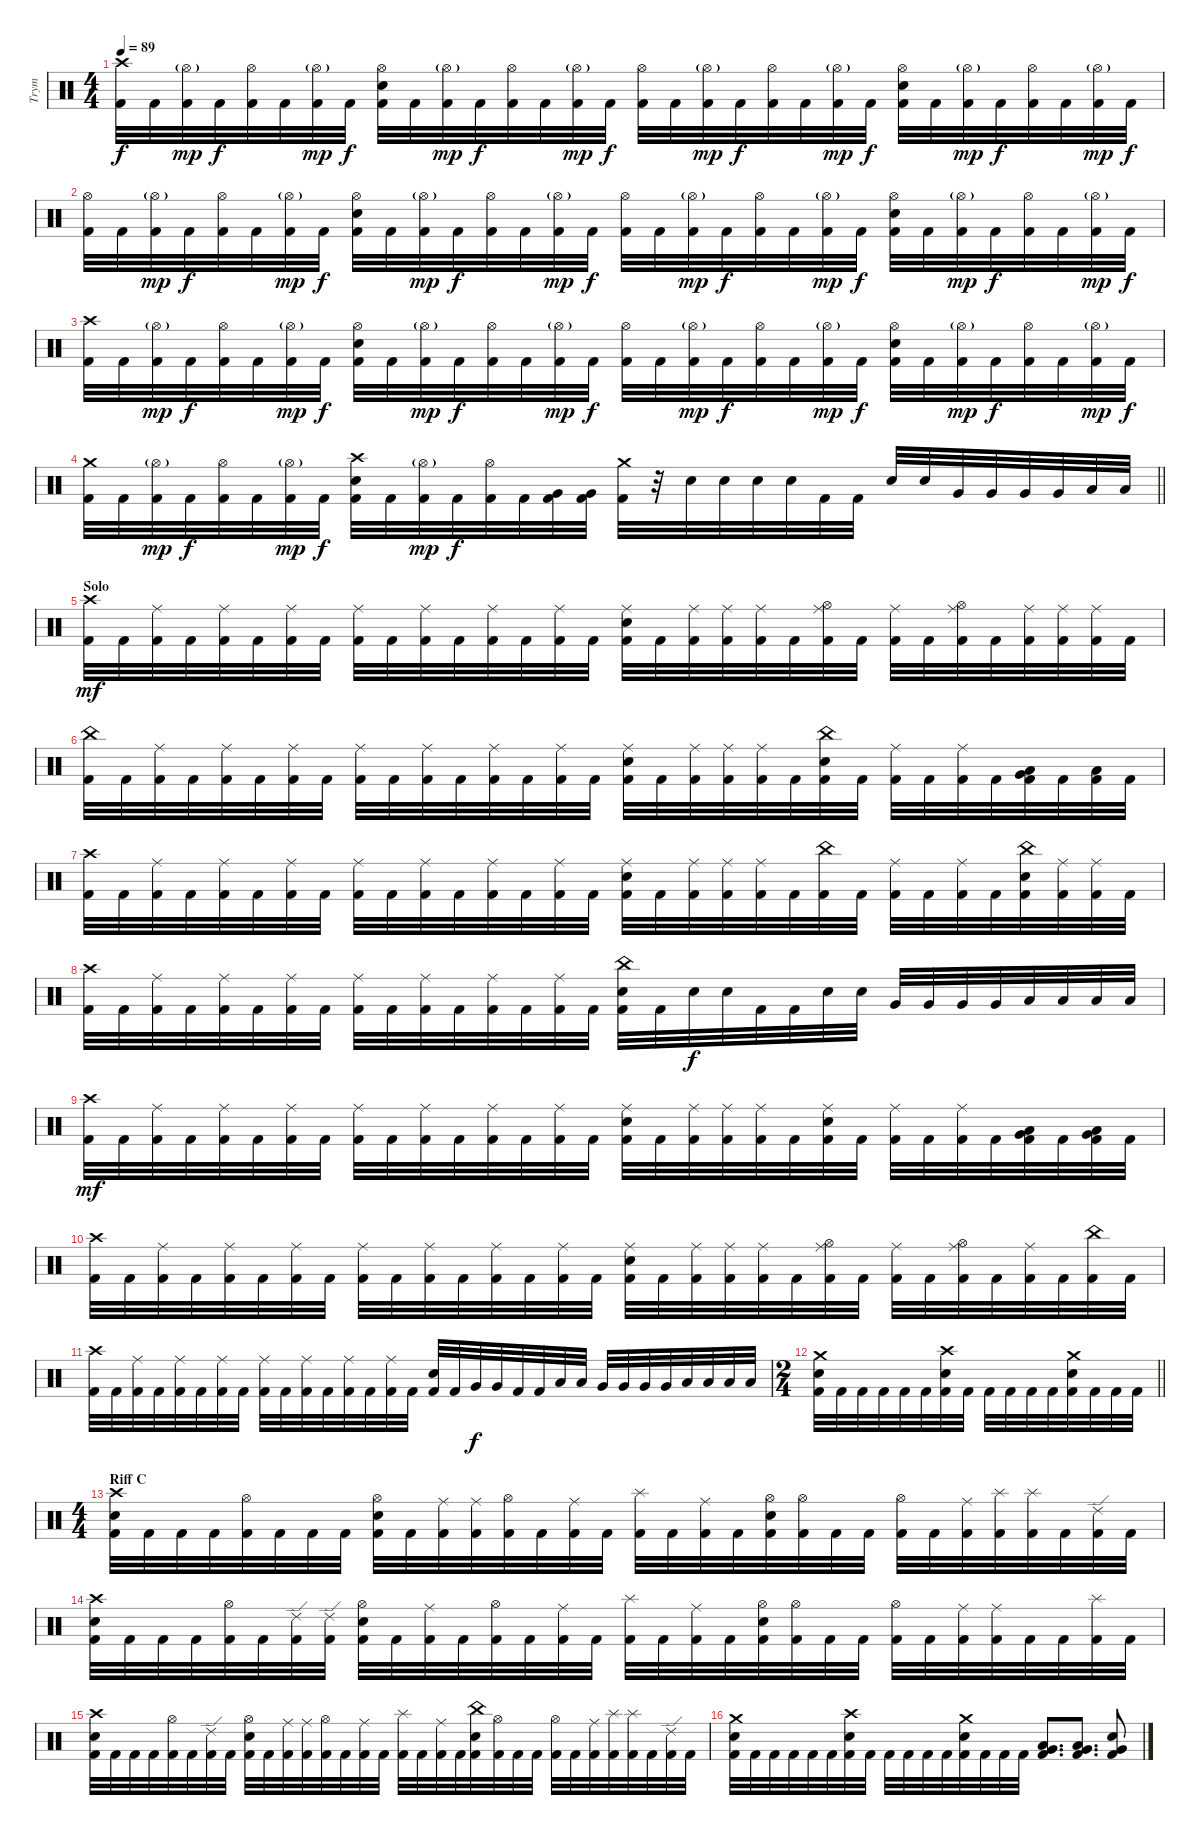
\track ("Trym" "Trym") {instrument percussion}
\staff {score}
\articulation defaults
\ts (4 4)
\tempo 89
\clef neutral
\ks c
("Crash high (hit)" "Kick (hit) 2").32{dy f} "Kick (hit) 2".32 ("Hi-Hat (open)"{g} "Kick (hit) 2").32{dy mp} "Kick (hit) 2".32{dy f} ("Hi-Hat (open)" "Kick (hit) 2").32 "Kick (hit) 2".32 ("Hi-Hat (open)"{g} "Kick (hit) 2").32{dy mp} "Kick (hit) 2".32{dy f} ("Hi-Hat (open)" "Snare (hit) 2" "Kick (hit) 2").32 "Kick (hit) 2".32 ("Hi-Hat (open)"{g} "Kick (hit) 2").32{dy mp} "Kick (hit) 2".32{dy f} ("Hi-Hat (open)" "Kick (hit) 2").32 "Kick (hit) 2".32 ("Hi-Hat (open)"{g} "Kick (hit) 2").32{dy mp} "Kick (hit) 2".32{dy f} ("Hi-Hat (open)" "Kick (hit) 2").32 "Kick (hit) 2".32 ("Hi-Hat (open)"{g} "Kick (hit) 2").32{dy mp} "Kick (hit) 2".32{dy f} ("Hi-Hat (open)" "Kick (hit) 2").32 "Kick (hit) 2".32 ("Hi-Hat (open)"{g} "Kick (hit) 2").32{dy mp} "Kick (hit) 2".32{dy f} ("Hi-Hat (open)" "Snare (hit) 2" "Kick (hit) 2").32 "Kick (hit) 2".32 ("Hi-Hat (open)"{g} "Kick (hit) 2").32{dy mp} "Kick (hit) 2".32{dy f} ("Hi-Hat (open)" "Kick (hit) 2").32 "Kick (hit) 2".32 ("Hi-Hat (open)"{g} "Kick (hit) 2").32{dy mp} "Kick (hit) 2".32{dy f} |
("Hi-Hat (open)" "Kick (hit) 2").32 "Kick (hit) 2".32 ("Hi-Hat (open)"{g} "Kick (hit) 2").32{dy mp} "Kick (hit) 2".32{dy f} ("Hi-Hat (open)" "Kick (hit) 2").32 "Kick (hit) 2".32 ("Hi-Hat (open)"{g} "Kick (hit) 2").32{dy mp} "Kick (hit) 2".32{dy f} ("Hi-Hat (open)" "Snare (hit) 2" "Kick (hit) 2").32 "Kick (hit) 2".32 ("Hi-Hat (open)"{g} "Kick (hit) 2").32{dy mp} "Kick (hit) 2".32{dy f} ("Hi-Hat (open)" "Kick (hit) 2").32 "Kick (hit) 2".32 ("Hi-Hat (open)"{g} "Kick (hit) 2").32{dy mp} "Kick (hit) 2".32{dy f} ("Hi-Hat (open)" "Kick (hit) 2").32 "Kick (hit) 2".32 ("Hi-Hat (open)"{g} "Kick (hit) 2").32{dy mp} "Kick (hit) 2".32{dy f} ("Hi-Hat (open)" "Kick (hit) 2").32 "Kick (hit) 2".32 ("Hi-Hat (open)"{g} "Kick (hit) 2").32{dy mp} "Kick (hit) 2".32{dy f} ("Hi-Hat (open)" "Snare (hit) 2" "Kick (hit) 2").32 "Kick (hit) 2".32 ("Hi-Hat (open)"{g} "Kick (hit) 2").32{dy mp} "Kick (hit) 2".32{dy f} ("Hi-Hat (open)" "Kick (hit) 2").32 "Kick (hit) 2".32 ("Hi-Hat (open)"{g} "Kick (hit) 2").32{dy mp} "Kick (hit) 2".32{dy f} |
("Crash high (hit)" "Kick (hit) 2").32 "Kick (hit) 2".32 ("Hi-Hat (open)"{g} "Kick (hit) 2").32{dy mp} "Kick (hit) 2".32{dy f} ("Hi-Hat (open)" "Kick (hit) 2").32 "Kick (hit) 2".32 ("Hi-Hat (open)"{g} "Kick (hit) 2").32{dy mp} "Kick (hit) 2".32{dy f} ("Hi-Hat (open)" "Snare (hit) 2" "Kick (hit) 2").32 "Kick (hit) 2".32 ("Hi-Hat (open)"{g} "Kick (hit) 2").32{dy mp} "Kick (hit) 2".32{dy f} ("Hi-Hat (open)" "Kick (hit) 2").32 "Kick (hit) 2".32 ("Hi-Hat (open)"{g} "Kick (hit) 2").32{dy mp} "Kick (hit) 2".32{dy f} ("Hi-Hat (open)" "Kick (hit) 2").32 "Kick (hit) 2".32 ("Hi-Hat (open)"{g} "Kick (hit) 2").32{dy mp} "Kick (hit) 2".32{dy f} ("Hi-Hat (open)" "Kick (hit) 2").32 "Kick (hit) 2".32 ("Hi-Hat (open)"{g} "Kick (hit) 2").32{dy mp} "Kick (hit) 2".32{dy f} ("Hi-Hat (open)" "Snare (hit) 2" "Kick (hit) 2").32 "Kick (hit) 2".32 ("Hi-Hat (open)"{g} "Kick (hit) 2").32{dy mp} "Kick (hit) 2".32{dy f} ("Hi-Hat (open)" "Kick (hit) 2").32 "Kick (hit) 2".32 ("Hi-Hat (open)"{g} "Kick (hit) 2").32{dy mp} "Kick (hit) 2".32{dy f} |
\barLineRight lightlight
("Crash medium (hit)" "Kick (hit) 2").32 "Kick (hit) 2".32 ("Hi-Hat (open)"{g} "Kick (hit) 2").32{dy mp} "Kick (hit) 2".32{dy f} ("Hi-Hat (open)" "Kick (hit) 2").32 "Kick (hit) 2".32 ("Hi-Hat (open)"{g} "Kick (hit) 2").32{dy mp} "Kick (hit) 2".32{dy f} ("Crash high (hit)" "Snare (hit) 2" "Kick (hit) 2").32 "Kick (hit) 2".32 ("Hi-Hat (open)"{g} "Kick (hit) 2").32{dy mp} "Kick (hit) 2".32{dy f} ("Hi-Hat (open)" "Kick (hit) 2").32 "Kick (hit) 2".32 ("Very Low Tom (hit)" "Kick (hit) 2").32 ("Very Low Tom (hit)" "Kick (hit) 2").32 ("Crash medium (hit)" "Kick (hit) 2").32 r.32 "Snare (hit) 2".32 "Snare (hit) 2".32 "Snare (hit) 2".32 "Snare (hit) 2".32 "Kick (hit) 2".32 "Kick (hit) 2".32 "Snare (hit) 2".32 "Snare (hit) 2".32 "Very Low Tom (hit)".32 "Very Low Tom (hit)".32 "Very Low Tom (hit)".32 "Very Low Tom (hit)".32 "Low Floor Tom (hit)".32 "Low Floor Tom (hit)".32 |
\section ("" "Solo")
("Crash high (hit)" "Kick (hit) 2").32{dy mf} "Kick (hit) 2".32 ("Ride (middle)" "Kick (hit) 2").32 "Kick (hit) 2".32 ("Ride (middle)" "Kick (hit) 2").32 "Kick (hit) 2".32 ("Ride (middle)" "Kick (hit) 2").32 "Kick (hit) 2".32 ("Ride (middle)" "Kick (hit) 2").32 "Kick (hit) 2".32 ("Ride (middle)" "Kick (hit) 2").32 "Kick (hit) 2".32 ("Ride (middle)" "Kick (hit) 2").32 "Kick (hit) 2".32 ("Ride (middle)" "Kick (hit) 2").32 "Kick (hit) 2".32 ("Ride (middle)" "Snare (hit) 2" "Kick (hit) 2").32 "Kick (hit) 2".32 ("Ride (middle)" "Kick (hit) 2").32 ("Ride (middle)" "Kick (hit) 2").32 ("Ride (middle)" "Kick (hit) 2").32 "Kick (hit) 2".32 ("Ride (middle)" "Hi-Hat (open)" "Kick (hit) 2").32 "Kick (hit) 2".32 ("Ride (middle)" "Kick (hit) 2").32 "Kick (hit) 2".32 ("Ride (middle)" "Hi-Hat (open)" "Kick (hit) 2").32 "Kick (hit) 2".32 ("Ride (middle)" "Kick (hit) 2").32 ("Ride (middle)" "Kick (hit) 2").32 ("Ride (middle)" "Kick (hit) 2").32 "Kick (hit) 2".32 |
("China (hit)" "Kick (hit) 2").32 "Kick (hit) 2".32 ("Ride (middle)" "Kick (hit) 2").32 "Kick (hit) 2".32 ("Ride (middle)" "Kick (hit) 2").32 "Kick (hit) 2".32 ("Ride (middle)" "Kick (hit) 2").32 "Kick (hit) 2".32 ("Ride (middle)" "Kick (hit) 2").32 "Kick (hit) 2".32 ("Ride (middle)" "Kick (hit) 2").32 "Kick (hit) 2".32 ("Ride (middle)" "Kick (hit) 2").32 "Kick (hit) 2".32 ("Ride (middle)" "Kick (hit) 2").32 "Kick (hit) 2".32 ("Ride (middle)" "Snare (hit) 2" "Kick (hit) 2").32 "Kick (hit) 2".32 ("Ride (middle)" "Kick (hit) 2").32 ("Ride (middle)" "Kick (hit) 2").32 ("Ride (middle)" "Kick (hit) 2").32 "Kick (hit) 2".32 ("China (hit)" "Snare (hit) 2" "Kick (hit) 2").32 "Kick (hit) 2".32 ("Ride (middle)" "Kick (hit) 2").32 "Kick (hit) 2".32 ("Ride (middle)" "Kick (hit) 2").32 "Kick (hit) 2".32 ("Very Low Tom (hit)" "Low Floor Tom (hit)" "Kick (hit) 2").32 "Kick (hit) 2".32 ("Low Floor Tom (hit)" "Kick (hit) 2").32 "Kick (hit) 2".32 |
("Crash high (hit)" "Kick (hit) 2").32 "Kick (hit) 2".32 ("Ride (middle)" "Kick (hit) 2").32 "Kick (hit) 2".32 ("Ride (middle)" "Kick (hit) 2").32 "Kick (hit) 2".32 ("Ride (middle)" "Kick (hit) 2").32 "Kick (hit) 2".32 ("Ride (middle)" "Kick (hit) 2").32 "Kick (hit) 2".32 ("Ride (middle)" "Kick (hit) 2").32 "Kick (hit) 2".32 ("Ride (middle)" "Kick (hit) 2").32 "Kick (hit) 2".32 ("Ride (middle)" "Kick (hit) 2").32 "Kick (hit) 2".32 ("Ride (middle)" "Snare (hit) 2" "Kick (hit) 2").32 "Kick (hit) 2".32 ("Ride (middle)" "Kick (hit) 2").32 ("Ride (middle)" "Kick (hit) 2").32 ("Ride (middle)" "Kick (hit) 2").32 "Kick (hit) 2".32 ("China (hit)" "Kick (hit) 2").32 "Kick (hit) 2".32 ("Ride (middle)" "Kick (hit) 2").32 "Kick (hit) 2".32 ("Ride (middle)" "Kick (hit) 2").32 "Kick (hit) 2".32 ("China (hit)" "Snare (hit) 2" "Kick (hit) 2").32 ("Ride (middle)" "Kick (hit) 2").32 ("Ride (middle)" "Kick (hit) 2").32 "Kick (hit) 2".32 |
("Crash high (hit)" "Kick (hit) 2").32 "Kick (hit) 2".32 ("Ride (middle)" "Kick (hit) 2").32 "Kick (hit) 2".32 ("Ride (middle)" "Kick (hit) 2").32 "Kick (hit) 2".32 ("Ride (middle)" "Kick (hit) 2").32 "Kick (hit) 2".32 ("Ride (middle)" "Kick (hit) 2").32 "Kick (hit) 2".32 ("Ride (middle)" "Kick (hit) 2").32 "Kick (hit) 2".32 ("Ride (middle)" "Kick (hit) 2").32 "Kick (hit) 2".32 ("Ride (middle)" "Kick (hit) 2").32 "Kick (hit) 2".32 ("China (hit)" "Snare (hit) 2" "Kick (hit) 2").32 "Kick (hit) 2".32 "Snare (hit) 2".32{dy f} "Snare (hit) 2".32 "Kick (hit) 2".32 "Kick (hit) 2".32 "Snare (hit) 2".32 "Snare (hit) 2".32 "Very Low Tom (hit)".32 "Very Low Tom (hit)".32 "Very Low Tom (hit)".32 "Very Low Tom (hit)".32 "Low Floor Tom (hit)".32 "Low Floor Tom (hit)".32 "Low Floor Tom (hit)".32 "Low Floor Tom (hit)".32 |
("Crash high (hit)" "Kick (hit) 2").32{dy mf} "Kick (hit) 2".32 ("Ride (middle)" "Kick (hit) 2").32 "Kick (hit) 2".32 ("Ride (middle)" "Kick (hit) 2").32 "Kick (hit) 2".32 ("Ride (middle)" "Kick (hit) 2").32 "Kick (hit) 2".32 ("Ride (middle)" "Kick (hit) 2").32 "Kick (hit) 2".32 ("Ride (middle)" "Kick (hit) 2").32 "Kick (hit) 2".32 ("Ride (middle)" "Kick (hit) 2").32 "Kick (hit) 2".32 ("Ride (middle)" "Kick (hit) 2").32 "Kick (hit) 2".32 ("Ride (middle)" "Snare (hit) 2" "Kick (hit) 2").32 "Kick (hit) 2".32 ("Ride (middle)" "Kick (hit) 2").32 ("Ride (middle)" "Kick (hit) 2").32 ("Ride (middle)" "Kick (hit) 2").32 "Kick (hit) 2".32 ("Ride (middle)" "Snare (hit) 2" "Kick (hit) 2").32 "Kick (hit) 2".32 ("Ride (middle)" "Kick (hit) 2").32 "Kick (hit) 2".32 ("Ride (middle)" "Kick (hit) 2").32 "Kick (hit) 2".32 ("Very Low Tom (hit)" "Low Floor Tom (hit)" "Kick (hit) 2").32 "Kick (hit) 2".32 ("Very Low Tom (hit)" "Low Floor Tom (hit)" "Kick (hit) 2").32 "Kick (hit) 2".32 |
("Crash high (hit)" "Kick (hit) 2").32 "Kick (hit) 2".32 ("Ride (middle)" "Kick (hit) 2").32 "Kick (hit) 2".32 ("Ride (middle)" "Kick (hit) 2").32 "Kick (hit) 2".32 ("Ride (middle)" "Kick (hit) 2").32 "Kick (hit) 2".32 ("Ride (middle)" "Kick (hit) 2").32 "Kick (hit) 2".32 ("Ride (middle)" "Kick (hit) 2").32 "Kick (hit) 2".32 ("Ride (middle)" "Kick (hit) 2").32 "Kick (hit) 2".32 ("Ride (middle)" "Kick (hit) 2").32 "Kick (hit) 2".32 ("Ride (middle)" "Snare (hit) 2" "Kick (hit) 2").32 "Kick (hit) 2".32 ("Ride (middle)" "Kick (hit) 2").32 ("Ride (middle)" "Kick (hit) 2").32 ("Ride (middle)" "Kick (hit) 2").32 "Kick (hit) 2".32 ("Ride (middle)" "Hi-Hat (open)" "Kick (hit) 2").32 "Kick (hit) 2".32 ("Ride (middle)" "Kick (hit) 2").32 "Kick (hit) 2".32 ("Ride (middle)" "Hi-Hat (open)" "Kick (hit) 2").32 "Kick (hit) 2".32 ("Ride (middle)" "Kick (hit) 2").32 "Kick (hit) 2".32 ("China (hit)" "Kick (hit) 2").32 "Kick (hit) 2".32 |
("Crash high (hit)" "Kick (hit) 2").32 "Kick (hit) 2".32 ("Ride (middle)" "Kick (hit) 2").32 "Kick (hit) 2".32 ("Ride (middle)" "Kick (hit) 2").32 "Kick (hit) 2".32 ("Ride (middle)" "Kick (hit) 2").32 "Kick (hit) 2".32 ("Ride (middle)" "Kick (hit) 2").32 "Kick (hit) 2".32 ("Ride (middle)" "Kick (hit) 2").32 "Kick (hit) 2".32 ("Ride (middle)" "Kick (hit) 2").32 "Kick (hit) 2".32 ("Ride (middle)" "Kick (hit) 2").32 "Kick (hit) 2".32 ("Snare (hit) 2" "Kick (hit) 2").32 "Kick (hit) 2".32 "Very Low Tom (hit)".32{dy f} "Very Low Tom (hit)".32 "Kick (hit) 2".32 "Kick (hit) 2".32 "Low Tom (hit)".32 "Low Tom (hit)".32 "Very Low Tom (hit)".32 "Very Low Tom (hit)".32 "Very Low Tom (hit)".32 "Very Low Tom (hit)".32 "Low Floor Tom (hit)".32 "Low Floor Tom (hit)".32 "Low Floor Tom (hit)".32 "Low Floor Tom (hit)".32 |
\ts (2 4)
\barLineRight lightlight
("Crash medium (hit)" "Snare (hit) 2" "Kick (hit) 2").32 "Kick (hit) 2".32 "Kick (hit) 2".32 "Kick (hit) 2".32 "Kick (hit) 2".32 "Kick (hit) 2".32 ("Crash high (hit)" "Snare (hit) 2" "Kick (hit) 2").32 "Kick (hit) 2".32 "Kick (hit) 2".32 "Kick (hit) 2".32 "Kick (hit) 2".32 "Kick (hit) 2".32 ("Crash medium (hit)" "Snare (hit) 2" "Kick (hit) 2").32 "Kick (hit) 2".32 "Kick (hit) 2".32 "Kick (hit) 2".32 |
\ts (4 4)
\section ("" "Riff C")
("Crash high (hit)" "Snare (hit) 2" "Kick (hit) 2").32 "Kick (hit) 2".32 "Kick (hit) 2".32 "Kick (hit) 2".32 ("Hi-Hat (open)" "Kick (hit) 2").32 "Kick (hit) 2".32 "Kick (hit) 2".32 "Kick (hit) 2".32 ("Hi-Hat (open)" "Snare (hit) 2" "Kick (hit) 2").32 "Kick (hit) 2".32 ("Ride (middle)" "Kick (hit) 2").32 ("Ride (middle)" "Kick (hit) 2").32 ("Hi-Hat (open)" "Kick (hit) 2").32 "Kick (hit) 2".32 ("Ride (middle)" "Kick (hit) 2").32 "Kick (hit) 2".32 ("Splash (hit)" "Kick (hit) 2").32 "Kick (hit) 2".32 ("Ride (middle)" "Kick (hit) 2").32 "Kick (hit) 2".32 ("Hi-Hat (open)" "Snare (hit) 2" "Kick (hit) 2").32 ("Hi-Hat (open)" "Kick (hit) 2").32 "Kick (hit) 2".32 "Kick (hit) 2".32 ("Hi-Hat (open)" "Kick (hit) 2").32 "Kick (hit) 2".32 ("Ride (middle)" "Kick (hit) 2").32 ("Splash (hit)" "Kick (hit) 2").32 ("Splash (hit)" "Kick (hit) 2").32 "Kick (hit) 2".32 ("Ride (edge) 2" "Kick (hit) 2").32 "Kick (hit) 2".32 |
("Crash high (hit)" "Snare (hit) 2" "Kick (hit) 2").32 "Kick (hit) 2".32 "Kick (hit) 2".32 "Kick (hit) 2".32 ("Hi-Hat (open)" "Kick (hit) 2").32 "Kick (hit) 2".32 ("Ride (edge) 2" "Kick (hit) 2").32 ("Ride (edge) 2" "Kick (hit) 2").32 ("Hi-Hat (open)" "Snare (hit) 2" "Kick (hit) 2").32 "Kick (hit) 2".32 ("Ride (middle)" "Kick (hit) 2").32 "Kick (hit) 2".32 ("Hi-Hat (open)" "Kick (hit) 2").32 "Kick (hit) 2".32 ("Ride (middle)" "Kick (hit) 2").32 "Kick (hit) 2".32 ("Splash (hit)" "Kick (hit) 2").32 "Kick (hit) 2".32 ("Ride (middle)" "Kick (hit) 2").32 "Kick (hit) 2".32 ("Hi-Hat (open)" "Snare (hit) 2" "Kick (hit) 2").32 ("Hi-Hat (open)" "Kick (hit) 2").32 "Kick (hit) 2".32 "Kick (hit) 2".32 ("Hi-Hat (open)" "Kick (hit) 2").32 "Kick (hit) 2".32 ("Ride (middle)" "Kick (hit) 2").32 ("Ride (middle)" "Kick (hit) 2").32 "Kick (hit) 2".32 "Kick (hit) 2".32 ("Splash (hit)" "Kick (hit) 2").32 "Kick (hit) 2".32 |
("Crash high (hit)" "Snare (hit) 2" "Kick (hit) 2").32 "Kick (hit) 2".32 "Kick (hit) 2".32 "Kick (hit) 2".32 ("Hi-Hat (open)" "Kick (hit) 2").32 "Kick (hit) 2".32 ("Ride (edge) 2" "Kick (hit) 2").32 "Kick (hit) 2".32 ("Hi-Hat (open)" "Snare (hit) 2" "Kick (hit) 2").32 "Kick (hit) 2".32 ("Ride (middle)" "Kick (hit) 2").32 ("Ride (middle)" "Kick (hit) 2").32 ("Hi-Hat (open)" "Kick (hit) 2").32 "Kick (hit) 2".32 ("Ride (middle)" "Kick (hit) 2").32 "Kick (hit) 2".32 ("Splash (hit)" "Kick (hit) 2").32 "Kick (hit) 2".32 ("Ride (middle)" "Kick (hit) 2").32 "Kick (hit) 2".32 ("China (hit)" "Snare (hit) 2" "Kick (hit) 2").32 ("Hi-Hat (open)" "Kick (hit) 2").32 "Kick (hit) 2".32 "Kick (hit) 2".32 ("Hi-Hat (open)" "Kick (hit) 2").32 "Kick (hit) 2".32 ("Ride (middle)" "Kick (hit) 2").32 ("Splash (hit)" "Kick (hit) 2").32 ("Splash (hit)" "Kick (hit) 2").32 "Kick (hit) 2".32 ("Ride (edge) 2" "Kick (hit) 2").32 "Kick (hit) 2".32 |
("Crash medium (hit)" "Snare (hit) 2" "Kick (hit) 2").32 "Kick (hit) 2".32 "Kick (hit) 2".32 "Kick (hit) 2".32 "Kick (hit) 2".32 "Kick (hit) 2".32 ("Crash high (hit)" "Snare (hit) 2" "Kick (hit) 2").32 "Kick (hit) 2".32 "Kick (hit) 2".32 "Kick (hit) 2".32 "Kick (hit) 2".32 "Kick (hit) 2".32 ("Crash medium (hit)" "Snare (hit) 2" "Kick (hit) 2").32 "Kick (hit) 2".32 "Kick (hit) 2".32 "Kick (hit) 2".32 ("Very Low Tom (hit)" "Low Floor Tom (hit)" "Kick (hit) 2").8{d} ("Very Low Tom (hit)" "Low Floor Tom (hit)" "Kick (hit) 2").8{d} ("Very Low Tom (hit)" "Snare (hit) 2" "Kick (hit) 2").8
